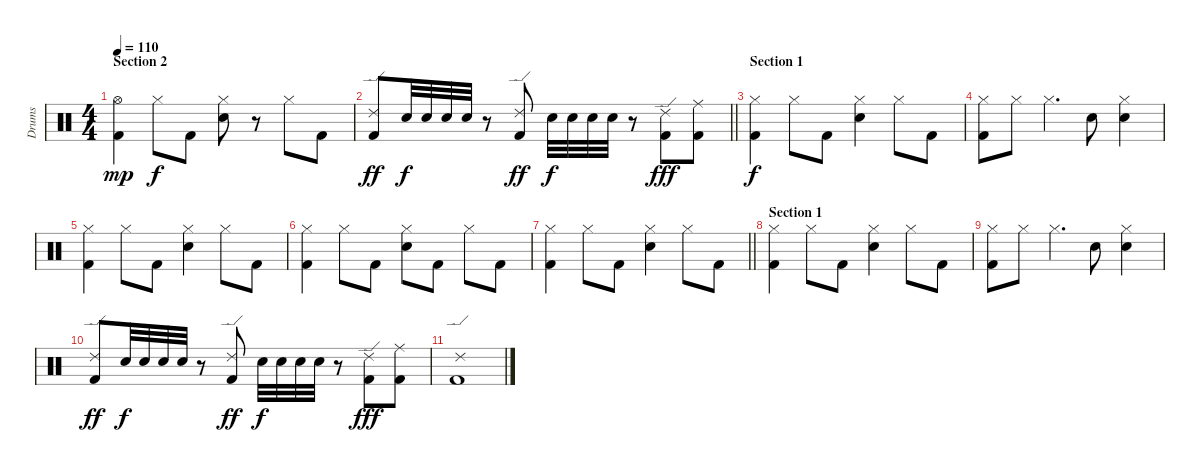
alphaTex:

\track ("Drums" "Drums") {instrument percussion}
\staff {score}
\articulation defaults
\ts (4 4)
\section ("" "Section 2")
\tempo 110
\clef neutral
\ks c
("Hi-Hat (open)" "Kick (hit) 2").4{dy mp} "Hi-Hat (closed)".8{dy f} "Kick (hit) 2".8 ("Hi-Hat (closed)" "Snare (hit) 2").8 r.8 "Hi-Hat (closed)".8 "Kick (hit) 2".8 |
\barLineRight lightlight
("Ride (edge) 2" "Kick (hit) 2").8{dy ff} "Snare (hit) 2".32{dy f} "Snare (hit) 2".32 "Snare (hit) 2".32 "Snare (hit) 2".32 r.8 ("Ride (edge) 2" "Kick (hit) 2").8{dy ff} "Snare (hit) 2".32{dy f} "Snare (hit) 2".32 "Snare (hit) 2".32 "Snare (hit) 2".32 r.8 ("Ride (edge) 2" "Kick (hit) 2").8{dy fff} ("Ride (middle)" "Kick (hit) 2").8 |
\section ("" "Section 1")
("Hi-Hat (closed)" "Kick (hit) 2").4{dy f} "Hi-Hat (closed)".8 "Kick (hit) 2".8 ("Hi-Hat (closed)" "Snare (hit) 2").4 "Hi-Hat (closed)".8 "Kick (hit) 2".8 |
("Hi-Hat (closed)" "Kick (hit) 2").8 "Hi-Hat (closed)".8 "Hi-Hat (closed)".4{d} "Snare (hit) 2".8 ("Hi-Hat (closed)" "Snare (hit) 2").4 |
("Hi-Hat (closed)" "Kick (hit) 2").4 "Hi-Hat (closed)".8 "Kick (hit) 2".8 ("Hi-Hat (closed)" "Snare (hit) 2").4 "Hi-Hat (closed)".8 "Kick (hit) 2".8 |
("Hi-Hat (closed)" "Kick (hit) 2").4 "Hi-Hat (closed)".8 "Kick (hit) 2".8 ("Hi-Hat (closed)" "Snare (hit) 2").8 "Kick (hit) 2".8 "Hi-Hat (closed)".8 "Kick (hit) 2".8 |
\barLineRight lightlight
("Hi-Hat (closed)" "Kick (hit) 2").4 "Hi-Hat (closed)".8 "Kick (hit) 2".8 ("Hi-Hat (closed)" "Snare (hit) 2").4 "Hi-Hat (closed)".8 "Kick (hit) 2".8 |
\section ("" "Section 1")
("Hi-Hat (closed)" "Kick (hit) 2").4 "Hi-Hat (closed)".8 "Kick (hit) 2".8 ("Hi-Hat (closed)" "Snare (hit) 2").4 "Hi-Hat (closed)".8 "Kick (hit) 2".8 |
("Hi-Hat (closed)" "Kick (hit) 2").8 "Hi-Hat (closed)".8 "Hi-Hat (closed)".4{d} "Snare (hit) 2".8 ("Hi-Hat (closed)" "Snare (hit) 2").4 |
("Ride (edge) 2" "Kick (hit) 2").8{dy ff} "Snare (hit) 2".32{dy f} "Snare (hit) 2".32 "Snare (hit) 2".32 "Snare (hit) 2".32 r.8 ("Ride (edge) 2" "Kick (hit) 2").8{dy ff} "Snare (hit) 2".32{dy f} "Snare (hit) 2".32 "Snare (hit) 2".32 "Snare (hit) 2".32 r.8 ("Ride (edge) 2" "Kick (hit) 2").8{dy fff} ("Ride (middle)" "Kick (hit) 2").8 |
("Ride (edge) 2" "Kick (hit) 2").1
